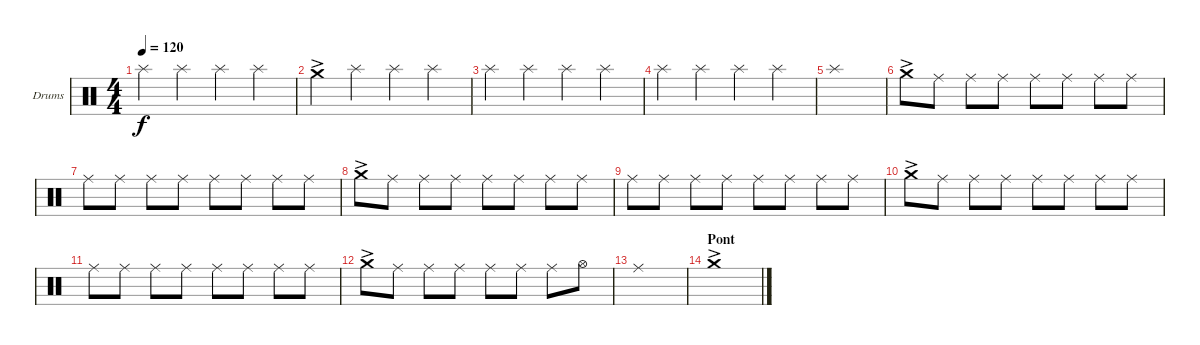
\defaultSystemsLayout 4
\bracketExtendMode groupsimilarinstruments
\firstSystemTrackNameOrientation horizontal
\otherSystemsTrackNameOrientation horizontal
\track ("Drumkit" "Drums") {multiBarRest instrument percussion}
\staff {score}
\articulation defaults
\ts (4 4)
\tempo 120
\clef neutral
\ks c "Splash (hit)".4{dy f} "Splash (hit)".4 "Splash (hit)".4 "Splash (hit)".4
|
"Crash medium (hit)"{ac}.4 "Splash (hit)".4 "Splash (hit)".4 "Splash (hit)".4 |
"Splash (hit)".4 "Splash (hit)".4 "Splash (hit)".4 "Splash (hit)".4 |
"Splash (hit)".4 "Splash (hit)".4 "Splash (hit)".4 "Splash (hit)".4 |
"Splash (hit)".1 |
"Crash medium (hit)"{ac}.8 "Ride (middle)".8 "Ride (middle)".8 "Ride (middle)".8 "Ride (middle)".8 "Ride (middle)".8 "Ride (middle)".8 "Ride (middle)".8 |
"Ride (middle)".8 "Ride (middle)".8 "Ride (middle)".8 "Ride (middle)".8 "Ride (middle)".8 "Ride (middle)".8 "Ride (middle)".8 "Ride (middle)".8 |
"Crash medium (hit)"{ac}.8 "Ride (middle)".8 "Ride (middle)".8 "Ride (middle)".8 "Ride (middle)".8 "Ride (middle)".8 "Ride (middle)".8 "Ride (middle)".8 |
"Ride (middle)".8 "Ride (middle)".8 "Ride (middle)".8 "Ride (middle)".8 "Ride (middle)".8 "Ride (middle)".8 "Ride (middle)".8 "Ride (middle)".8 |
"Crash medium (hit)"{ac}.8 "Ride (middle)".8 "Ride (middle)".8 "Ride (middle)".8 "Ride (middle)".8 "Ride (middle)".8 "Ride (middle)".8 "Ride (middle)".8 |
"Ride (middle)".8 "Ride (middle)".8 "Ride (middle)".8 "Ride (middle)".8 "Ride (middle)".8 "Ride (middle)".8 "Ride (middle)".8 "Ride (middle)".8 |
"Crash medium (hit)"{ac}.8 "Ride (middle)".8 "Ride (middle)".8 "Ride (middle)".8 "Ride (middle)".8 "Ride (middle)".8 "Ride (middle)".8 "Hi-Hat (open)".8 |
"Ride (middle)".1 |
\section ("" "Pont")
"Crash medium (hit)"{ac}.1
